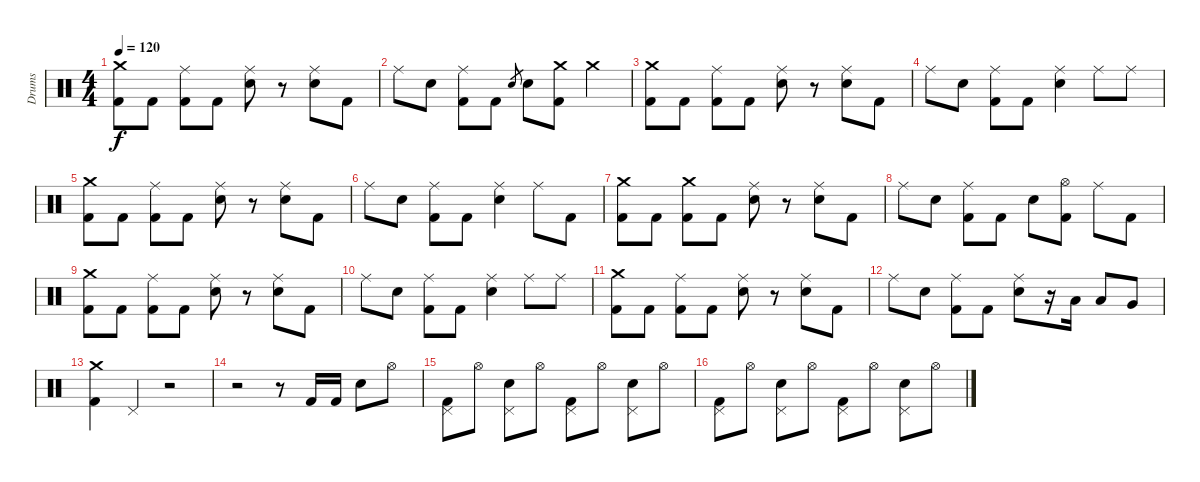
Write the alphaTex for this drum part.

\track ("Drums" "Drums") {instrument percussion}
\staff {score}
\articulation defaults
\ts (4 4)
\tempo 120
\clef neutral
\ks c
("Crash medium (hit)" "Kick (hit) 2").8{dy f} "Kick (hit) 2".8 ("Ride (middle)" "Kick (hit) 2").8 "Kick (hit) 2".8 ("Ride (middle)" "Electric Snare (hit)").8 r.8 ("Ride (middle)" "Electric Snare (hit)").8 "Kick (hit) 2".8 |
"Ride (middle)".8 "Electric Snare (hit)".8 ("Ride (middle)" "Kick (hit) 2").8 "Kick (hit) 2".8 "Electric Snare (hit)".8{gr} "Electric Snare (hit)".8 ("Crash medium (hit)" "Kick (hit) 2").8 "Crash medium (hit)".4 |
("Crash medium (hit)" "Kick (hit) 2").8 "Kick (hit) 2".8 ("Ride (middle)" "Kick (hit) 2").8 "Kick (hit) 2".8 ("Ride (middle)" "Electric Snare (hit)").8 r.8 ("Ride (middle)" "Electric Snare (hit)").8 "Kick (hit) 2".8 |
"Ride (middle)".8 "Electric Snare (hit)".8 ("Ride (middle)" "Kick (hit) 2").8 "Kick (hit) 2".8 ("Ride (middle)" "Electric Snare (hit)").4 "Ride (middle)".8 "Ride (middle)".8 |
("Crash medium (hit)" "Kick (hit) 2").8 "Kick (hit) 2".8 ("Ride (middle)" "Kick (hit) 2").8 "Kick (hit) 2".8 ("Ride (middle)" "Electric Snare (hit)").8 r.8 ("Ride (middle)" "Electric Snare (hit)").8 "Kick (hit) 2".8 |
"Ride (middle)".8 "Electric Snare (hit)".8 ("Ride (middle)" "Kick (hit) 2").8 "Kick (hit) 2".8 ("Ride (middle)" "Electric Snare (hit)").4 "Ride (middle)".8 "Kick (hit) 2".8 |
("Crash medium (hit)" "Kick (hit) 2").8 "Kick (hit) 2".8 ("Crash medium (hit)" "Kick (hit) 2").8 "Kick (hit) 2".8 ("Ride (middle)" "Electric Snare (hit)").8 r.8 ("Ride (middle)" "Electric Snare (hit)").8 "Kick (hit) 2".8 |
"Ride (middle)".8 "Electric Snare (hit)".8 ("Ride (middle)" "Kick (hit) 2").8 "Kick (hit) 2".8 "Electric Snare (hit)".8 ("Hi-Hat (open)" "Kick (hit) 2").8 "Ride (middle)".8 "Kick (hit) 2".8 |
("Crash medium (hit)" "Kick (hit) 2").8 "Kick (hit) 2".8 ("Ride (middle)" "Kick (hit) 2").8 "Kick (hit) 2".8 ("Ride (middle)" "Electric Snare (hit)").8 r.8 ("Ride (middle)" "Electric Snare (hit)").8 "Kick (hit) 2".8 |
"Ride (middle)".8 "Electric Snare (hit)".8 ("Ride (middle)" "Kick (hit) 2").8 "Kick (hit) 2".8 ("Ride (middle)" "Electric Snare (hit)").4 "Ride (middle)".8 "Ride (middle)".8 |
("Crash medium (hit)" "Kick (hit) 2").8 "Kick (hit) 2".8 ("Ride (middle)" "Kick (hit) 2").8 "Kick (hit) 2".8 ("Ride (middle)" "Electric Snare (hit)").8 r.8 ("Ride (middle)" "Electric Snare (hit)").8 "Kick (hit) 2".8 |
"Ride (middle)".8 "Electric Snare (hit)".8 ("Ride (middle)" "Kick (hit) 2").8 "Kick (hit) 2".8 ("Ride (middle)" "Electric Snare (hit)").8 r.16 "Low Tom (hit)".16 "Low Tom (hit)".8 "Very Low Tom (hit)".8 |
("Crash medium (hit)" "Kick (hit) 2").4 "Pedal Hi-Hat (hit)".4 r.2 |
r.2 r.8 "Kick (hit) 2".16 "Kick (hit) 2".16 "Electric Snare (hit)".8 "Hi-Hat (open)".8 |
("Pedal Hi-Hat (hit)" "Kick (hit) 2").8 "Hi-Hat (open)".8 ("Pedal Hi-Hat (hit)" "Electric Snare (hit)").8 "Hi-Hat (open)".8 ("Pedal Hi-Hat (hit)" "Kick (hit) 2").8 "Hi-Hat (open)".8 ("Pedal Hi-Hat (hit)" "Electric Snare (hit)").8 "Hi-Hat (open)".8 |
("Pedal Hi-Hat (hit)" "Kick (hit) 2").8 "Hi-Hat (open)".8 ("Pedal Hi-Hat (hit)" "Electric Snare (hit)").8 "Hi-Hat (open)".8 ("Pedal Hi-Hat (hit)" "Kick (hit) 2").8 "Hi-Hat (open)".8 ("Pedal Hi-Hat (hit)" "Electric Snare (hit)").8 "Hi-Hat (open)".8
